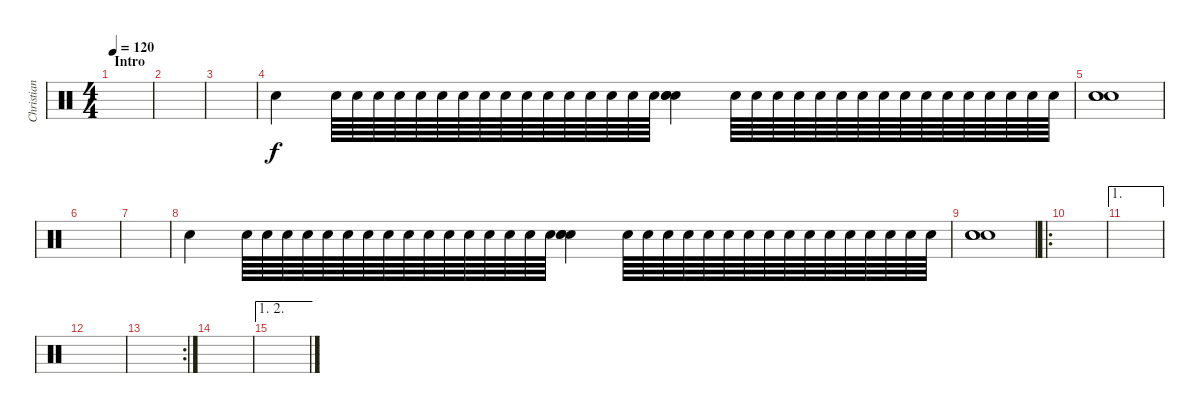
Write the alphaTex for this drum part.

\track ("Christian Batteria" "Christian ") {instrument percussion}
\staff {score}
\articulation defaults
\ts (4 4)
\section ("" "Intro")
\tempo 120
\clef neutral
\ks c
|
|
|
"Snare (hit) 2".4{volume 4} "Snare (hit) 2".64 "Snare (hit) 2".64 "Snare (hit) 2".64 "Snare (hit) 2".64 "Snare (hit) 2".64 "Snare (hit) 2".64 "Snare (hit) 2".64 "Snare (hit) 2".64 "Snare (hit) 2".64 "Snare (hit) 2".64 "Snare (hit) 2".64 "Snare (hit) 2".64 "Snare (hit) 2".64 "Snare (hit) 2".64 "Snare (hit) 2".64 "Snare (hit) 2".64 ("Snare (hit) 2" "Snare (hit) 2" "Snare (hit) 2").4 "Snare (hit) 2".64 "Snare (hit) 2".64 "Snare (hit) 2".64 "Snare (hit) 2".64 "Snare (hit) 2".64 "Snare (hit) 2".64 "Snare (hit) 2".64 "Snare (hit) 2".64 "Snare (hit) 2".64 "Snare (hit) 2".64 "Snare (hit) 2".64 "Snare (hit) 2".64 "Snare (hit) 2".64 "Snare (hit) 2".64 "Snare (hit) 2".64 "Snare (hit) 2".64 |
("Snare (hit) 2" "Snare (hit) 2" "Snare (hit) 2").1 |
|
|
"Snare (hit) 2".4{volume 4} "Snare (hit) 2".64 "Snare (hit) 2".64 "Snare (hit) 2".64 "Snare (hit) 2".64 "Snare (hit) 2".64 "Snare (hit) 2".64 "Snare (hit) 2".64 "Snare (hit) 2".64 "Snare (hit) 2".64 "Snare (hit) 2".64 "Snare (hit) 2".64 "Snare (hit) 2".64 "Snare (hit) 2".64 "Snare (hit) 2".64 "Snare (hit) 2".64 "Snare (hit) 2".64 ("Snare (hit) 2" "Snare (hit) 2" "Snare (hit) 2").4 "Snare (hit) 2".64 "Snare (hit) 2".64 "Snare (hit) 2".64 "Snare (hit) 2".64 "Snare (hit) 2".64 "Snare (hit) 2".64 "Snare (hit) 2".64 "Snare (hit) 2".64 "Snare (hit) 2".64 "Snare (hit) 2".64 "Snare (hit) 2".64 "Snare (hit) 2".64 "Snare (hit) 2".64 "Snare (hit) 2".64 "Snare (hit) 2".64 "Snare (hit) 2".64 |
("Snare (hit) 2" "Snare (hit) 2" "Snare (hit) 2").1 |
\ro
|
\ae 1
|
|
\rc 2
|
|
\ae (1 2)
